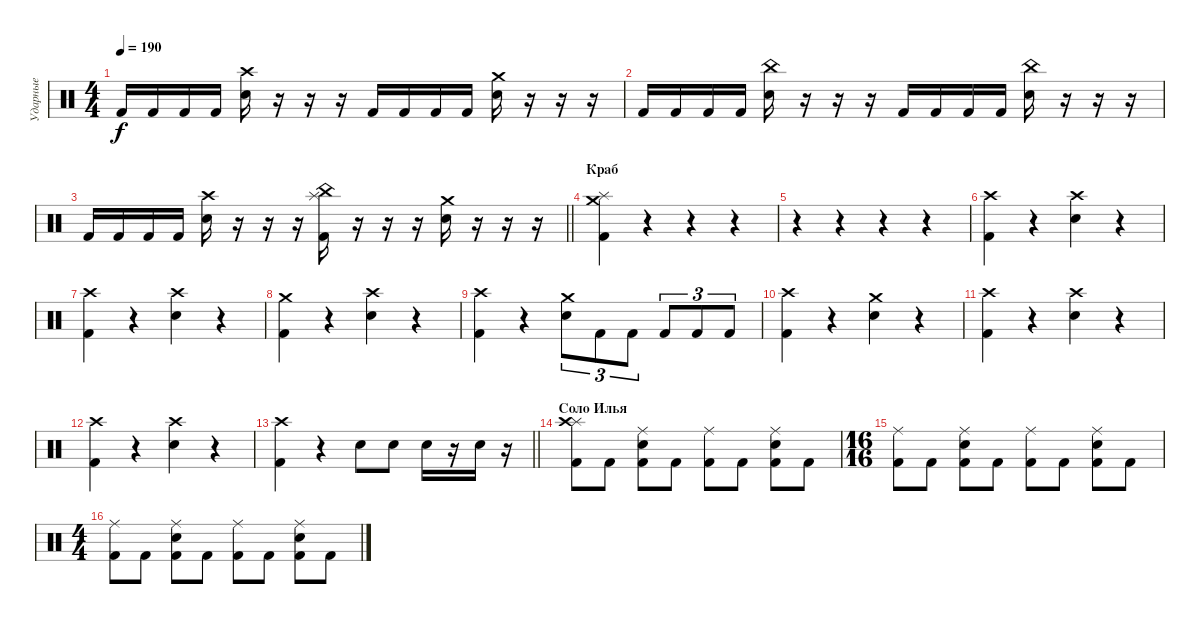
\track ("Ударные" "Ударные") {instrument percussion}
\staff {score}
\articulation defaults
\ts (4 4)
\tempo 190
\clef neutral
\ks c "Kick (hit) 2".16{dy f} "Kick (hit) 2".16 "Kick (hit) 2".16 "Kick (hit) 2".16
("Electric Snare (hit)" "Crash high (hit)").16 r.16 r.16 r.16 "Kick (hit) 2".16 "Kick (hit) 2".16 "Kick (hit) 2".16 "Kick (hit) 2".16 ("Electric Snare (hit)" "Crash medium (hit)").16 r.16 r.16 r.16 |
"Kick (hit) 2".16 "Kick (hit) 2".16 "Kick (hit) 2".16 "Kick (hit) 2".16 ("Electric Snare (hit)" "China (hit)").16 r.16 r.16 r.16 "Kick (hit) 2".16 "Kick (hit) 2".16 "Kick (hit) 2".16 "Kick (hit) 2".16 ("Electric Snare (hit)" "China (hit)").16 r.16 r.16 r.16 |
\barLineRight lightlight "Kick (hit) 2".16 "Kick (hit) 2".16 "Kick (hit) 2".16 "Kick (hit) 2".16
("Electric Snare (hit)" "Crash high (hit)").16 r.16 r.16 r.16 ("Kick (hit) 2" "China (hit)" "Splash (hit)").16 r.16 r.16 r.16 ("Electric Snare (hit)" "Crash medium (hit)").16 r.16 r.16 r.16 |
\section ("" "Краб")
("Splash (hit)" "Crash medium (hit)" "Kick (hit) 2").4 r.4 r.4 r.4 |
r.4 r.4 r.4 r.4 |
("Crash high (hit)" "Kick (hit) 2").4 r.4 ("Crash high (hit)" "Electric Snare (hit)").4 r.4 |
("Crash high (hit)" "Kick (hit) 2").4 r.4 ("Crash high (hit)" "Electric Snare (hit)").4 r.4 |
("Crash medium (hit)" "Kick (hit) 2").4 r.4 ("Crash high (hit)" "Electric Snare (hit)").4 r.4 |
("Crash high (hit)" "Kick (hit) 2").4 r.4 ("Crash medium (hit)" "Electric Snare (hit)").8{tu (3 2)} "Kick (hit) 2".8{tu (3 2)} "Kick (hit) 2".8{tu (3 2)} "Kick (hit) 2".8{tu (3 2)} "Kick (hit) 2".8{tu (3 2)} "Kick (hit) 2".8{tu (3 2)} |
("Crash high (hit)" "Kick (hit) 2").4 r.4 ("Crash medium (hit)" "Electric Snare (hit)").4 r.4 |
("Crash high (hit)" "Kick (hit) 2").4 r.4 ("Crash high (hit)" "Electric Snare (hit)").4 r.4 |
("Crash high (hit)" "Kick (hit) 2").4 r.4 ("Crash high (hit)" "Electric Snare (hit)").4 r.4 |
\barLineRight lightlight
("Crash high (hit)" "Kick (hit) 2").4 r.4 "Electric Snare (hit)".8 "Electric Snare (hit)".8 "Electric Snare (hit)".16 r.16 "Electric Snare (hit)".16 r.16 |
\section ("" "Соло Илья")
("Splash (hit)" "Crash high (hit)" "Kick (hit) 2").8 "Kick (hit) 2".8 ("Ride (middle)" "Electric Snare (hit)" "Kick (hit) 2").8 "Kick (hit) 2".8 ("Ride (middle)" "Kick (hit) 2").8 "Kick (hit) 2".8 ("Ride (middle)" "Electric Snare (hit)" "Kick (hit) 2").8 "Kick (hit) 2".8 |
\ts (16 16)
("Ride (middle)" "Kick (hit) 2").8 "Kick (hit) 2".8 ("Ride (middle)" "Electric Snare (hit)" "Kick (hit) 2").8 "Kick (hit) 2".8 ("Ride (middle)" "Kick (hit) 2").8 "Kick (hit) 2".8 ("Ride (middle)" "Electric Snare (hit)" "Kick (hit) 2").8 "Kick (hit) 2".8 |
\ts (4 4)
("Ride (middle)" "Kick (hit) 2").8 "Kick (hit) 2".8 ("Ride (middle)" "Electric Snare (hit)" "Kick (hit) 2").8 "Kick (hit) 2".8 ("Ride (middle)" "Kick (hit) 2").8 "Kick (hit) 2".8 ("Ride (middle)" "Electric Snare (hit)" "Kick (hit) 2").8 "Kick (hit) 2".8
